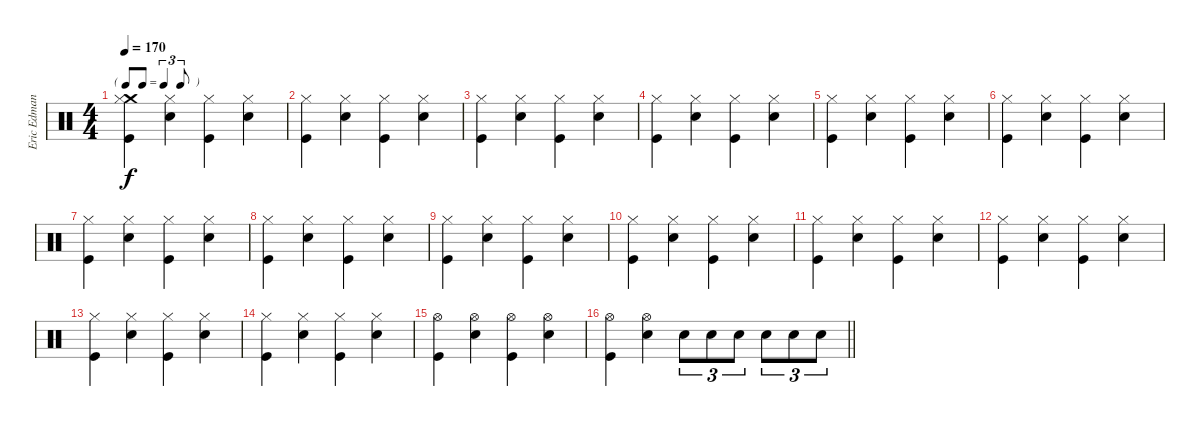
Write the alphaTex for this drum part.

\track ("Eric Edman - Drums" "Eric Edman") {instrument percussion}
\staff {score}
\articulation defaults
\ts (4 4)
\tf triplet8th
\tempo 170
\clef neutral
\ks c
("Crash medium (hit)" "Hi-Hat (closed)" "Kick (hit)").4{dy f} ("Hi-Hat (closed)" "Snare (hit) 2").4 ("Hi-Hat (closed)" "Kick (hit)").4 ("Hi-Hat (closed)" "Snare (hit) 2").4 |
("Hi-Hat (closed)" "Kick (hit)").4 ("Hi-Hat (closed)" "Snare (hit) 2").4 ("Hi-Hat (closed)" "Kick (hit)").4 ("Hi-Hat (closed)" "Snare (hit) 2").4 |
("Hi-Hat (closed)" "Kick (hit)").4 ("Hi-Hat (closed)" "Snare (hit) 2").4 ("Hi-Hat (closed)" "Kick (hit)").4 ("Hi-Hat (closed)" "Snare (hit) 2").4 |
("Hi-Hat (closed)" "Kick (hit)").4 ("Hi-Hat (closed)" "Snare (hit) 2").4 ("Hi-Hat (closed)" "Kick (hit)").4 ("Hi-Hat (closed)" "Snare (hit) 2").4 |
("Hi-Hat (closed)" "Kick (hit)").4 ("Hi-Hat (closed)" "Snare (hit) 2").4 ("Hi-Hat (closed)" "Kick (hit)").4 ("Hi-Hat (closed)" "Snare (hit) 2").4 |
("Hi-Hat (closed)" "Kick (hit)").4 ("Hi-Hat (closed)" "Snare (hit) 2").4 ("Hi-Hat (closed)" "Kick (hit)").4 ("Hi-Hat (closed)" "Snare (hit) 2").4 |
("Hi-Hat (closed)" "Kick (hit)").4 ("Hi-Hat (closed)" "Snare (hit) 2").4 ("Hi-Hat (closed)" "Kick (hit)").4 ("Hi-Hat (closed)" "Snare (hit) 2").4 |
("Hi-Hat (closed)" "Kick (hit)").4 ("Hi-Hat (closed)" "Snare (hit) 2").4 ("Hi-Hat (closed)" "Kick (hit)").4 ("Hi-Hat (closed)" "Snare (hit) 2").4 |
("Hi-Hat (closed)" "Kick (hit)").4 ("Hi-Hat (closed)" "Snare (hit) 2").4 ("Hi-Hat (closed)" "Kick (hit)").4 ("Hi-Hat (closed)" "Snare (hit) 2").4 |
("Hi-Hat (closed)" "Kick (hit)").4 ("Hi-Hat (closed)" "Snare (hit) 2").4 ("Hi-Hat (closed)" "Kick (hit)").4 ("Hi-Hat (closed)" "Snare (hit) 2").4 |
("Hi-Hat (closed)" "Kick (hit)").4 ("Hi-Hat (closed)" "Snare (hit) 2").4 ("Hi-Hat (closed)" "Kick (hit)").4 ("Hi-Hat (closed)" "Snare (hit) 2").4 |
("Hi-Hat (closed)" "Kick (hit)").4 ("Hi-Hat (closed)" "Snare (hit) 2").4 ("Hi-Hat (closed)" "Kick (hit)").4 ("Hi-Hat (closed)" "Snare (hit) 2").4 |
("Hi-Hat (closed)" "Kick (hit)").4 ("Hi-Hat (closed)" "Snare (hit) 2").4 ("Hi-Hat (closed)" "Kick (hit)").4 ("Hi-Hat (closed)" "Snare (hit) 2").4 |
("Hi-Hat (closed)" "Kick (hit)").4 ("Hi-Hat (closed)" "Snare (hit) 2").4 ("Hi-Hat (closed)" "Kick (hit)").4 ("Hi-Hat (closed)" "Snare (hit) 2").4 |
("Hi-Hat (open)" "Kick (hit)").4 ("Hi-Hat (open)" "Snare (hit) 2").4 ("Hi-Hat (open)" "Kick (hit)").4 ("Hi-Hat (open)" "Snare (hit) 2").4 |
\barLineRight lightlight
("Hi-Hat (open)" "Kick (hit)").4 ("Hi-Hat (open)" "Snare (hit) 2").4 "Snare (hit) 2".8{tu (3 2)} "Snare (hit) 2".8{tu (3 2)} "Snare (hit) 2".8{tu (3 2)} "Snare (hit) 2".8{tu (3 2)} "Snare (hit) 2".8{tu (3 2)} "Snare (hit) 2".8{tu (3 2)}
